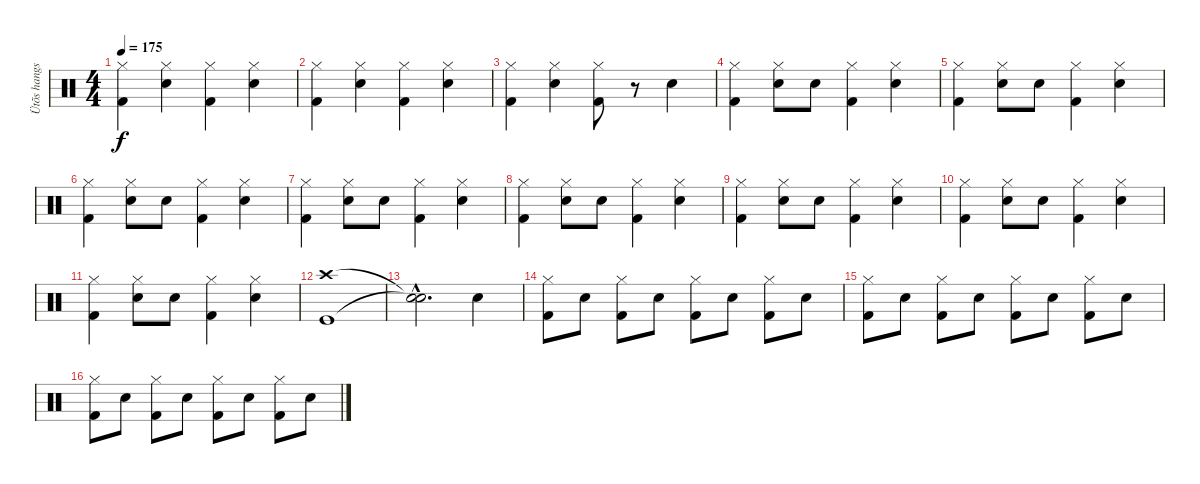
\track ("Ütõs hangszer" "Ütõs hangs") {instrument percussion}
\staff {score}
\articulation defaults
\ts (4 4)
\tempo 175
\clef neutral
\ks c
("Hi-Hat (closed)" "Kick (hit) 2").4{dy f} ("Hi-Hat (closed)" "Electric Snare (hit)").4 ("Hi-Hat (closed)" "Kick (hit) 2").4 ("Hi-Hat (closed)" "Electric Snare (hit)").4 |
("Hi-Hat (closed)" "Kick (hit) 2").4 ("Hi-Hat (closed)" "Electric Snare (hit)").4 ("Hi-Hat (closed)" "Kick (hit) 2").4 ("Hi-Hat (closed)" "Electric Snare (hit)").4 |
("Hi-Hat (closed)" "Kick (hit) 2").4 ("Hi-Hat (closed)" "Electric Snare (hit)").4 ("Hi-Hat (closed)" "Kick (hit) 2").8 r.8 "Electric Snare (hit)".4 |
("Hi-Hat (closed)" "Kick (hit) 2").4 ("Hi-Hat (closed)" "Electric Snare (hit)").8 "Electric Snare (hit)".8 ("Hi-Hat (closed)" "Kick (hit) 2").4 ("Hi-Hat (closed)" "Electric Snare (hit)").4 |
("Hi-Hat (closed)" "Kick (hit) 2").4 ("Hi-Hat (closed)" "Electric Snare (hit)").8 "Electric Snare (hit)".8 ("Hi-Hat (closed)" "Kick (hit) 2").4 ("Hi-Hat (closed)" "Electric Snare (hit)").4 |
("Hi-Hat (closed)" "Kick (hit) 2").4 ("Hi-Hat (closed)" "Electric Snare (hit)").8 "Electric Snare (hit)".8 ("Hi-Hat (closed)" "Kick (hit) 2").4 ("Hi-Hat (closed)" "Electric Snare (hit)").4 |
("Hi-Hat (closed)" "Kick (hit) 2").4 ("Hi-Hat (closed)" "Electric Snare (hit)").8 "Electric Snare (hit)".8 ("Hi-Hat (closed)" "Kick (hit) 2").4 ("Hi-Hat (closed)" "Electric Snare (hit)").4 |
("Hi-Hat (closed)" "Kick (hit) 2").4 ("Hi-Hat (closed)" "Electric Snare (hit)").8 "Electric Snare (hit)".8 ("Hi-Hat (closed)" "Kick (hit) 2").4 ("Hi-Hat (closed)" "Electric Snare (hit)").4 |
("Hi-Hat (closed)" "Kick (hit) 2").4 ("Hi-Hat (closed)" "Electric Snare (hit)").8 "Electric Snare (hit)".8 ("Hi-Hat (closed)" "Kick (hit) 2").4 ("Hi-Hat (closed)" "Electric Snare (hit)").4 |
("Hi-Hat (closed)" "Kick (hit) 2").4 ("Hi-Hat (closed)" "Electric Snare (hit)").8 "Electric Snare (hit)".8 ("Hi-Hat (closed)" "Kick (hit) 2").4 ("Hi-Hat (closed)" "Electric Snare (hit)").4 |
("Hi-Hat (closed)" "Kick (hit) 2").4 ("Hi-Hat (closed)" "Electric Snare (hit)").8 "Electric Snare (hit)".8 ("Hi-Hat (closed)" "Kick (hit) 2").4 ("Hi-Hat (closed)" "Electric Snare (hit)").4 |
("Crash high (hit)" "Kick (hit)").1 |
("Snare (hit)"{hac t} "Snare (hit)"{hac t}).2{d} "Electric Snare (hit)".4 |
("Hi-Hat (closed)" "Kick (hit) 2").8 "Electric Snare (hit)".8 ("Hi-Hat (closed)" "Kick (hit) 2").8 "Electric Snare (hit)".8 ("Hi-Hat (closed)" "Kick (hit) 2").8 "Electric Snare (hit)".8 ("Hi-Hat (closed)" "Kick (hit) 2").8 "Electric Snare (hit)".8 |
("Hi-Hat (closed)" "Kick (hit) 2").8 "Electric Snare (hit)".8 ("Hi-Hat (closed)" "Kick (hit) 2").8 "Electric Snare (hit)".8 ("Hi-Hat (closed)" "Kick (hit) 2").8 "Electric Snare (hit)".8 ("Hi-Hat (closed)" "Kick (hit) 2").8 "Electric Snare (hit)".8 |
("Hi-Hat (closed)" "Kick (hit) 2").8 "Electric Snare (hit)".8 ("Hi-Hat (closed)" "Kick (hit) 2").8 "Electric Snare (hit)".8 ("Hi-Hat (closed)" "Kick (hit) 2").8 "Electric Snare (hit)".8 ("Hi-Hat (closed)" "Kick (hit) 2").8 "Electric Snare (hit)".8
